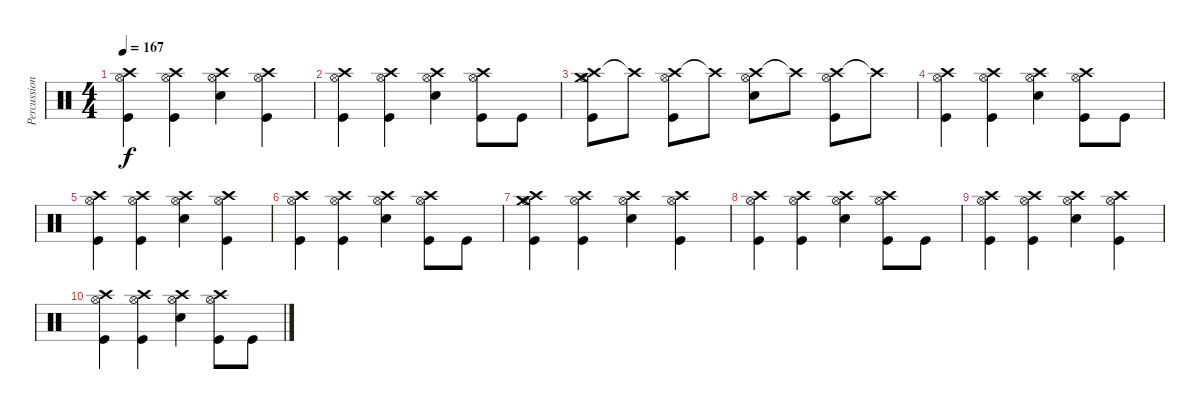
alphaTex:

\track ("Percussion" "Percussion") {instrument percussion}
\staff {score}
\articulation defaults
\ts (4 4)
\tempo 167
\clef neutral
\ks c
("Crash high (hit)" "Hi-Hat (open)" "Kick (hit)").4{dy f} ("Crash high (hit)" "Hi-Hat (open)" "Kick (hit)").4 ("Crash high (hit)" "Hi-Hat (open)" "Electric Snare (hit)").4 ("Crash high (hit)" "Hi-Hat (open)" "Kick (hit)").4 |
("Crash high (hit)" "Hi-Hat (open)" "Kick (hit)").4 ("Crash high (hit)" "Hi-Hat (open)" "Kick (hit)").4 ("Crash high (hit)" "Hi-Hat (open)" "Electric Snare (hit)").4 ("Crash high (hit)" "Hi-Hat (open)" "Kick (hit)").8 "Kick (hit)".8 |
("Crash high (hit)" "Hi-Hat (open)" "Crash medium (hit)" "Kick (hit)").8 "Crash high (hit)"{t}.8 ("Crash high (hit)" "Hi-Hat (open)" "Kick (hit)").8 "Crash high (hit)"{t}.8 ("Crash high (hit)" "Hi-Hat (open)" "Electric Snare (hit)").8 "Crash high (hit)"{t}.8 ("Crash high (hit)" "Hi-Hat (open)" "Kick (hit)").8 "Crash high (hit)"{t}.8 |
("Crash high (hit)" "Hi-Hat (open)" "Kick (hit)").4 ("Crash high (hit)" "Hi-Hat (open)" "Kick (hit)").4 ("Crash high (hit)" "Hi-Hat (open)" "Electric Snare (hit)").4 ("Crash high (hit)" "Hi-Hat (open)" "Kick (hit)").8 "Kick (hit)".8 |
("Crash high (hit)" "Hi-Hat (open)" "Kick (hit)").4 ("Crash high (hit)" "Hi-Hat (open)" "Kick (hit)").4 ("Crash high (hit)" "Hi-Hat (open)" "Electric Snare (hit)").4 ("Crash high (hit)" "Hi-Hat (open)" "Kick (hit)").4 |
("Crash high (hit)" "Hi-Hat (open)" "Kick (hit)").4 ("Crash high (hit)" "Hi-Hat (open)" "Kick (hit)").4 ("Crash high (hit)" "Hi-Hat (open)" "Electric Snare (hit)").4 ("Crash high (hit)" "Hi-Hat (open)" "Kick (hit)").8 "Kick (hit)".8 |
("Crash high (hit)" "Hi-Hat (open)" "Crash medium (hit)" "Kick (hit)").4 ("Crash high (hit)" "Hi-Hat (open)" "Kick (hit)").4 ("Crash high (hit)" "Hi-Hat (open)" "Electric Snare (hit)").4 ("Crash high (hit)" "Hi-Hat (open)" "Kick (hit)").4 |
("Crash high (hit)" "Hi-Hat (open)" "Kick (hit)").4 ("Crash high (hit)" "Hi-Hat (open)" "Kick (hit)").4 ("Crash high (hit)" "Hi-Hat (open)" "Electric Snare (hit)").4 ("Crash high (hit)" "Hi-Hat (open)" "Kick (hit)").8 "Kick (hit)".8 |
("Crash high (hit)" "Hi-Hat (open)" "Kick (hit)").4 ("Crash high (hit)" "Hi-Hat (open)" "Kick (hit)").4 ("Crash high (hit)" "Hi-Hat (open)" "Electric Snare (hit)").4 ("Crash high (hit)" "Hi-Hat (open)" "Kick (hit)").4 |
("Crash high (hit)" "Hi-Hat (open)" "Kick (hit)").4 ("Crash high (hit)" "Hi-Hat (open)" "Kick (hit)").4 ("Crash high (hit)" "Hi-Hat (open)" "Electric Snare (hit)").4 ("Crash high (hit)" "Hi-Hat (open)" "Kick (hit)").8 "Kick (hit)".8
